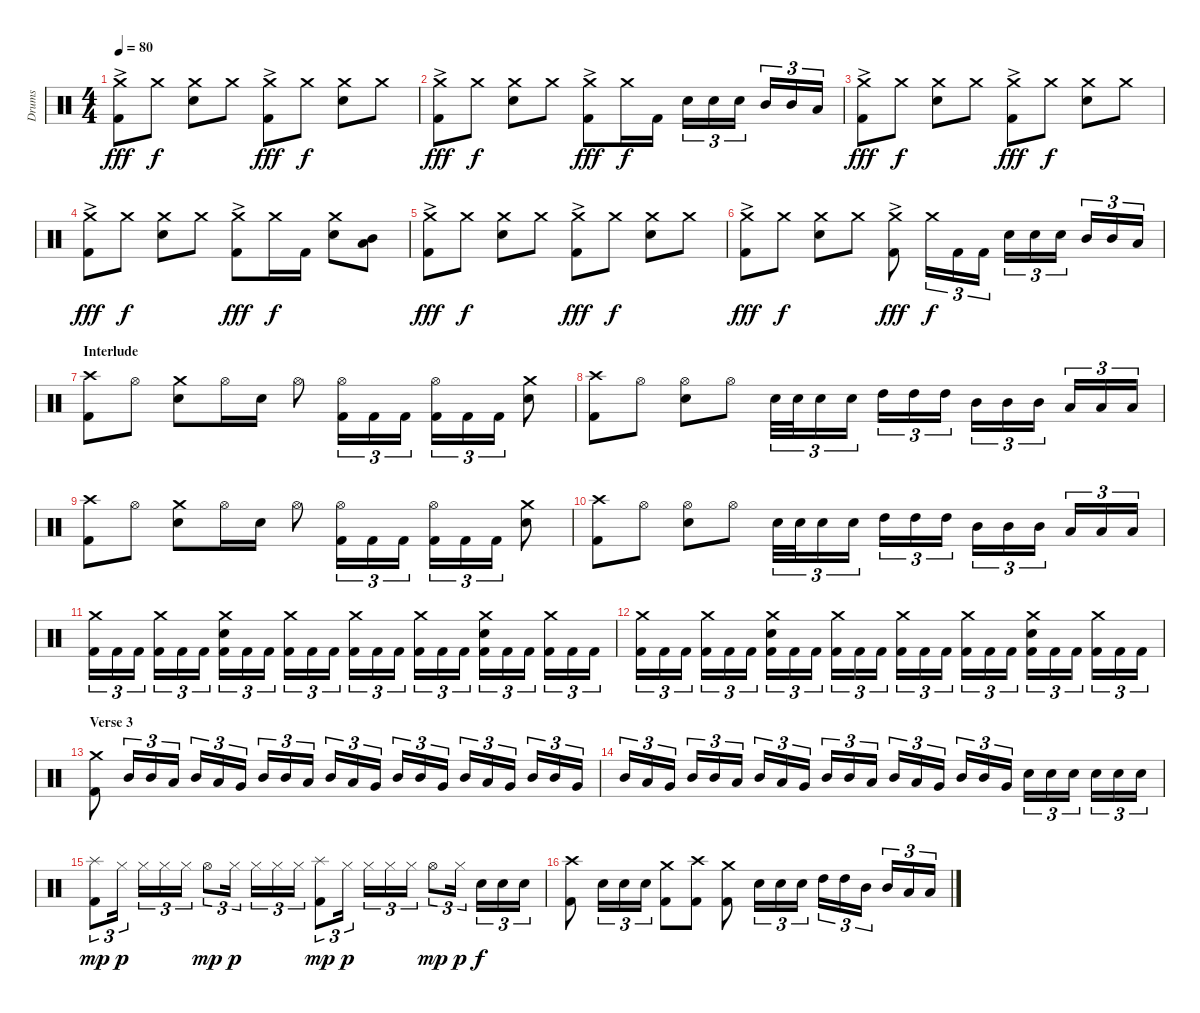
\track ("Drums" "Drums") {instrument percussion}
\staff {score}
\articulation defaults
\ts (4 4)
\tempo 80
\clef neutral
\ks c
("Crash medium (hit)"{ac} "Kick (hit) 2").8{dy fff} "Crash medium (hit)".8{dy f} ("Crash medium (hit)" "Electric Snare (hit)").8 "Crash medium (hit)".8 ("Crash medium (hit)"{ac} "Kick (hit) 2").8{dy fff} "Crash medium (hit)".8{dy f} ("Crash medium (hit)" "Electric Snare (hit)").8 "Crash medium (hit)".8 |
("Crash medium (hit)"{ac} "Kick (hit) 2").8{dy fff} "Crash medium (hit)".8{dy f} ("Crash medium (hit)" "Electric Snare (hit)").8 "Crash medium (hit)".8 ("Crash medium (hit)"{ac} "Kick (hit) 2").8{dy fff} "Crash medium (hit)".16{dy f} "Kick (hit) 2".16 "Electric Snare (hit)".16{tu (3 2)} "Electric Snare (hit)".16{tu (3 2)} "Electric Snare (hit)".16{tu (3 2)} "Mid Tom (hit)".16{tu (3 2)} "Mid Tom (hit)".16{tu (3 2)} "Low Tom (hit)".16{tu (3 2)} |
("Crash medium (hit)"{ac} "Kick (hit) 2").8{dy fff} "Crash medium (hit)".8{dy f} ("Crash medium (hit)" "Electric Snare (hit)").8 "Crash medium (hit)".8 ("Crash medium (hit)"{ac} "Kick (hit) 2").8{dy fff} "Crash medium (hit)".8{dy f} ("Crash medium (hit)" "Electric Snare (hit)").8 "Crash medium (hit)".8 |
("Crash medium (hit)"{ac} "Kick (hit) 2").8{dy fff} "Crash medium (hit)".8{dy f} ("Crash medium (hit)" "Electric Snare (hit)").8 "Crash medium (hit)".8 ("Crash medium (hit)"{ac} "Kick (hit) 2").8{dy fff} "Crash medium (hit)".16{dy f} "Kick (hit) 2".16 ("Crash medium (hit)" "Electric Snare (hit)").8 ("Mid Tom (hit)" "Low Tom (hit)").8 |
("Crash medium (hit)"{ac} "Kick (hit) 2").8{dy fff} "Crash medium (hit)".8{dy f} ("Crash medium (hit)" "Electric Snare (hit)").8 "Crash medium (hit)".8 ("Crash medium (hit)"{ac} "Kick (hit) 2").8{dy fff} "Crash medium (hit)".8{dy f} ("Crash medium (hit)" "Electric Snare (hit)").8 "Crash medium (hit)".8 |
("Crash medium (hit)"{ac} "Kick (hit) 2").8{dy fff} "Crash medium (hit)".8{dy f} ("Crash medium (hit)" "Electric Snare (hit)").8 "Crash medium (hit)".8 ("Crash medium (hit)"{ac} "Kick (hit) 2").8{dy fff} "Crash medium (hit)".16{tu (3 2) dy f} "Kick (hit) 2".16{tu (3 2)} "Kick (hit) 2".16{tu (3 2)} "Electric Snare (hit)".16{tu (3 2)} "Electric Snare (hit)".16{tu (3 2)} "Electric Snare (hit)".16{tu (3 2)} "Mid Tom (hit)".16{tu (3 2)} "Mid Tom (hit)".16{tu (3 2)} "Low Tom (hit)".16{tu (3 2)} |
\section ("" "Interlude")
("Crash high (hit)" "Kick (hit) 2").8 "Hi-Hat (open)".8 ("Crash medium (hit)" "Electric Snare (hit)").8 "Hi-Hat (open)".16 "Electric Snare (hit)".16 "Hi-Hat (open)".8 ("Hi-Hat (open)" "Kick (hit) 2").16{tu (3 2)} "Kick (hit) 2".16{tu (3 2)} "Kick (hit) 2".16{tu (3 2)} ("Hi-Hat (open)" "Kick (hit) 2").16{tu (3 2)} "Kick (hit) 2".16{tu (3 2)} "Kick (hit) 2".16{tu (3 2)} ("Crash medium (hit)" "Electric Snare (hit)").8 |
("Crash high (hit)" "Kick (hit) 2").8 "Hi-Hat (open)".8 ("Hi-Hat (open)" "Electric Snare (hit)").8 "Hi-Hat (open)".8 "Electric Snare (hit)".32{tu (3 2)} "Electric Snare (hit)".32{tu (3 2)} "Electric Snare (hit)".16{tu (3 2)} "Electric Snare (hit)".16{tu (3 2)} "High Tom (hit)".16{tu (3 2)} "High Tom (hit)".16{tu (3 2)} "High Tom (hit)".16{tu (3 2)} "Mid Tom (hit)".16{tu (3 2)} "Mid Tom (hit)".16{tu (3 2)} "Mid Tom (hit)".16{tu (3 2)} "Low Tom (hit)".16{tu (3 2)} "Low Tom (hit)".16{tu (3 2)} "Low Tom (hit)".16{tu (3 2)} |
("Crash high (hit)" "Kick (hit) 2").8 "Hi-Hat (open)".8 ("Crash medium (hit)" "Electric Snare (hit)").8 "Hi-Hat (open)".16 "Electric Snare (hit)".16 "Hi-Hat (open)".8 ("Hi-Hat (open)" "Kick (hit) 2").16{tu (3 2)} "Kick (hit) 2".16{tu (3 2)} "Kick (hit) 2".16{tu (3 2)} ("Hi-Hat (open)" "Kick (hit) 2").16{tu (3 2)} "Kick (hit) 2".16{tu (3 2)} "Kick (hit) 2".16{tu (3 2)} ("Crash medium (hit)" "Electric Snare (hit)").8 |
("Crash high (hit)" "Kick (hit) 2").8 "Hi-Hat (open)".8 ("Hi-Hat (open)" "Electric Snare (hit)").8 "Hi-Hat (open)".8 "Electric Snare (hit)".32{tu (3 2)} "Electric Snare (hit)".32{tu (3 2)} "Electric Snare (hit)".16{tu (3 2)} "Electric Snare (hit)".16{tu (3 2)} "High Tom (hit)".16{tu (3 2)} "High Tom (hit)".16{tu (3 2)} "High Tom (hit)".16{tu (3 2)} "Mid Tom (hit)".16{tu (3 2)} "Mid Tom (hit)".16{tu (3 2)} "Mid Tom (hit)".16{tu (3 2)} "Low Tom (hit)".16{tu (3 2)} "Low Tom (hit)".16{tu (3 2)} "Low Tom (hit)".16{tu (3 2)} |
("Crash medium (hit)" "Kick (hit) 2").16{tu (3 2)} "Kick (hit) 2".16{tu (3 2)} "Kick (hit) 2".16{tu (3 2)} ("Crash medium (hit)" "Kick (hit) 2").16{tu (3 2)} "Kick (hit) 2".16{tu (3 2)} "Kick (hit) 2".16{tu (3 2)} ("Crash medium (hit)" "Electric Snare (hit)" "Kick (hit) 2").16{tu (3 2)} "Kick (hit) 2".16{tu (3 2)} "Kick (hit) 2".16{tu (3 2)} ("Crash medium (hit)" "Kick (hit) 2").16{tu (3 2)} "Kick (hit) 2".16{tu (3 2)} "Kick (hit) 2".16{tu (3 2)} ("Crash medium (hit)" "Kick (hit) 2").16{tu (3 2)} "Kick (hit) 2".16{tu (3 2)} "Kick (hit) 2".16{tu (3 2)} ("Crash medium (hit)" "Kick (hit) 2").16{tu (3 2)} "Kick (hit) 2".16{tu (3 2)} "Kick (hit) 2".16{tu (3 2)} ("Crash medium (hit)" "Electric Snare (hit)" "Kick (hit) 2").16{tu (3 2)} "Kick (hit) 2".16{tu (3 2)} "Kick (hit) 2".16{tu (3 2)} ("Crash medium (hit)" "Kick (hit) 2").16{tu (3 2)} "Kick (hit) 2".16{tu (3 2)} "Kick (hit) 2".16{tu (3 2)} |
("Crash medium (hit)" "Kick (hit) 2").16{tu (3 2)} "Kick (hit) 2".16{tu (3 2)} "Kick (hit) 2".16{tu (3 2)} ("Crash medium (hit)" "Kick (hit) 2").16{tu (3 2)} "Kick (hit) 2".16{tu (3 2)} "Kick (hit) 2".16{tu (3 2)} ("Crash medium (hit)" "Electric Snare (hit)" "Kick (hit) 2").16{tu (3 2)} "Kick (hit) 2".16{tu (3 2)} "Kick (hit) 2".16{tu (3 2)} ("Crash medium (hit)" "Kick (hit) 2").16{tu (3 2)} "Kick (hit) 2".16{tu (3 2)} "Kick (hit) 2".16{tu (3 2)} ("Crash medium (hit)" "Kick (hit) 2").16{tu (3 2)} "Kick (hit) 2".16{tu (3 2)} "Kick (hit) 2".16{tu (3 2)} ("Crash medium (hit)" "Kick (hit) 2").16{tu (3 2)} "Kick (hit) 2".16{tu (3 2)} "Kick (hit) 2".16{tu (3 2)} ("Crash medium (hit)" "Electric Snare (hit)" "Kick (hit) 2").16{tu (3 2)} "Kick (hit) 2".16{tu (3 2)} "Kick (hit) 2".16{tu (3 2)} ("Crash medium (hit)" "Kick (hit) 2").16{tu (3 2)} "Kick (hit) 2".16{tu (3 2)} "Kick (hit) 2".16{tu (3 2)} |
\section ("" "Verse 3")
("Crash medium (hit)" "Kick (hit) 2").8 "Mid Tom (hit)".16{tu (3 2)} "Mid Tom (hit)".16{tu (3 2)} "Low Tom (hit)".16{tu (3 2)} "Mid Tom (hit)".16{tu (3 2)} "Low Tom (hit)".16{tu (3 2)} "Very Low Tom (hit)".16{tu (3 2)} "Mid Tom (hit)".16{tu (3 2)} "Mid Tom (hit)".16{tu (3 2)} "Low Tom (hit)".16{tu (3 2)} "Mid Tom (hit)".16{tu (3 2)} "Low Tom (hit)".16{tu (3 2)} "Very Low Tom (hit)".16{tu (3 2)} "Mid Tom (hit)".16{tu (3 2)} "Mid Tom (hit)".16{tu (3 2)} "Very Low Tom (hit)".16{tu (3 2)} "Mid Tom (hit)".16{tu (3 2)} "Low Tom (hit)".16{tu (3 2)} "Very Low Tom (hit)".16{tu (3 2)} "Mid Tom (hit)".16{tu (3 2)} "Mid Tom (hit)".16{tu (3 2)} "Very Low Tom (hit)".16{tu (3 2)} |
"Mid Tom (hit)".16{tu (3 2)} "Low Tom (hit)".16{tu (3 2)} "Very Low Tom (hit)".16{tu (3 2)} "Mid Tom (hit)".16{tu (3 2)} "Mid Tom (hit)".16{tu (3 2)} "Low Tom (hit)".16{tu (3 2)} "Mid Tom (hit)".16{tu (3 2)} "Low Tom (hit)".16{tu (3 2)} "Very Low Tom (hit)".16{tu (3 2)} "Mid Tom (hit)".16{tu (3 2)} "Mid Tom (hit)".16{tu (3 2)} "Low Tom (hit)".16{tu (3 2)} "Mid Tom (hit)".16{tu (3 2)} "Low Tom (hit)".16{tu (3 2)} "Very Low Tom (hit)".16{tu (3 2)} "Mid Tom (hit)".16{tu (3 2)} "Mid Tom (hit)".16{tu (3 2)} "Very Low Tom (hit)".16{tu (3 2)} "Electric Snare (hit)".16{tu (3 2)} "Electric Snare (hit)".16{tu (3 2)} "Electric Snare (hit)".16{tu (3 2)} "Electric Snare (hit)".16{tu (3 2)} "Electric Snare (hit)".16{tu (3 2)} "Electric Snare (hit)".16{tu (3 2)} |
("Splash (hit)" "Kick (hit) 2").8{tu (3 2) dy mp} "Hi-Hat (closed)".16{tu (3 2) dy p} "Hi-Hat (closed)".16{tu (3 2)} "Hi-Hat (closed)".16{tu (3 2)} "Hi-Hat (closed)".16{tu (3 2)} "Hi-Hat (open)".8{tu (3 2) dy mp} "Hi-Hat (closed)".16{tu (3 2) dy p} "Hi-Hat (closed)".16{tu (3 2)} "Hi-Hat (closed)".16{tu (3 2)} "Hi-Hat (closed)".16{tu (3 2)} ("Splash (hit)" "Kick (hit) 2").8{tu (3 2) dy mp} "Hi-Hat (closed)".16{tu (3 2) dy p} "Hi-Hat (closed)".16{tu (3 2)} "Hi-Hat (closed)".16{tu (3 2)} "Hi-Hat (closed)".16{tu (3 2)} "Hi-Hat (open)".8{tu (3 2) dy mp} "Hi-Hat (closed)".16{tu (3 2) dy p} "Electric Snare (hit)".16{tu (3 2) dy f} "Electric Snare (hit)".16{tu (3 2)} "Electric Snare (hit)".16{tu (3 2)} |
("Crash high (hit)" "Kick (hit) 2").8 "Electric Snare (hit)".16{tu (3 2)} "Electric Snare (hit)".16{tu (3 2)} "Electric Snare (hit)".16{tu (3 2)} ("Crash medium (hit)" "Kick (hit) 2").8 ("Crash high (hit)" "Kick (hit) 2").8 ("Crash medium (hit)" "Kick (hit) 2").8 "Electric Snare (hit)".16{tu (3 2)} "Electric Snare (hit)".16{tu (3 2)} "Electric Snare (hit)".16{tu (3 2)} "High Tom (hit)".16{tu (3 2)} "High Tom (hit)".16{tu (3 2)} "Mid Tom (hit)".16{tu (3 2)} "Mid Tom (hit)".16{tu (3 2)} "Low Tom (hit)".16{tu (3 2)} "Low Tom (hit)".16{tu (3 2)}
